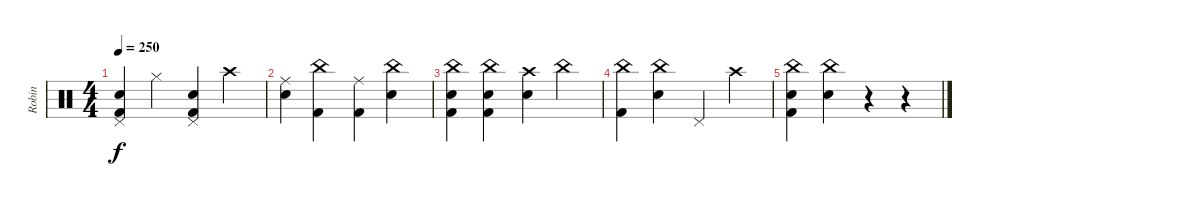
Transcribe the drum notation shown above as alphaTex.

\track ("Robin" "Robin") {instrument percussion}
\staff {score}
\articulation defaults
\ts (4 4)
\tempo 250
\clef neutral
\ks c
("Pedal Hi-Hat (hit)" "Snare (hit) 2" "Kick (hit) 2").4{dy f} "Hi-Hat (closed)".4 ("Pedal Hi-Hat (hit)" "Snare (hit) 2" "Kick (hit) 2").4 "Crash high (hit)".4 |
("Ride (middle)" "Snare (hit) 2").4 ("China (hit)" "Kick (hit) 2").4 ("Ride (middle)" "Kick (hit) 2").4 ("China (hit)" "Snare (hit) 2").4 |
("China (hit)" "Snare (hit) 2" "Kick (hit) 2").4 ("China (hit)" "Snare (hit) 2" "Kick (hit) 2").4 ("Crash high (hit)" "Snare (hit) 2").4 "China (hit)".4 |
("China (hit)" "Kick (hit) 2").4 ("China (hit)" "Snare (hit) 2").4 "Pedal Hi-Hat (hit)".4 "Crash high (hit)".4 |
("China (hit)" "Snare (hit) 2" "Kick (hit) 2").4 ("China (hit)" "Snare (hit) 2").4 r.4 r.4
